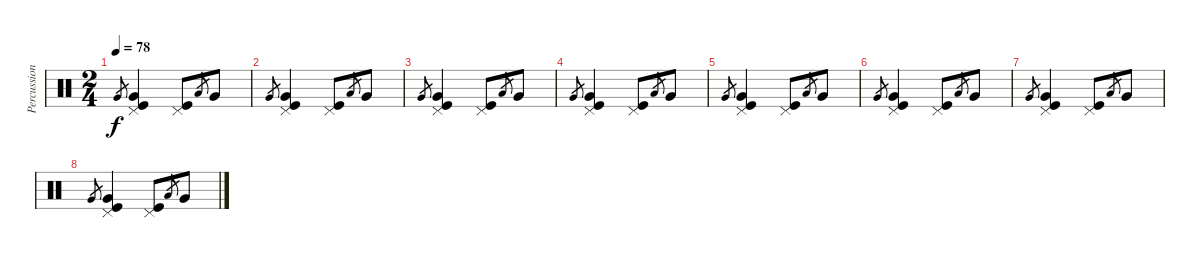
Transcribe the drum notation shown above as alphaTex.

\track ("Percussions" "Percussion") {instrument percussion}
\staff {score}
\articulation defaults
\ts (2 4)
\tempo 78
\clef neutral
\ks c "Very Low Tom (hit)".8{gr dy f}
("Pedal Hi-Hat (hit)" "Kick (hit)" "Very Low Tom (hit)").4 ("Pedal Hi-Hat (hit)" "Kick (hit)").8 "Low Floor Tom (hit)".8{gr} "Very Low Tom (hit)".8 |
"Very Low Tom (hit)".8{gr} ("Pedal Hi-Hat (hit)" "Kick (hit)" "Very Low Tom (hit)").4 ("Pedal Hi-Hat (hit)" "Kick (hit)").8 "Low Floor Tom (hit)".8{gr} "Very Low Tom (hit)".8 |
"Very Low Tom (hit)".8{gr} ("Pedal Hi-Hat (hit)" "Kick (hit)" "Very Low Tom (hit)").4 ("Pedal Hi-Hat (hit)" "Kick (hit)").8 "Low Floor Tom (hit)".8{gr} "Very Low Tom (hit)".8 |
"Very Low Tom (hit)".8{gr} ("Pedal Hi-Hat (hit)" "Kick (hit)" "Very Low Tom (hit)").4 ("Pedal Hi-Hat (hit)" "Kick (hit)").8 "Low Floor Tom (hit)".8{gr} "Very Low Tom (hit)".8 |
"Very Low Tom (hit)".8{gr} ("Pedal Hi-Hat (hit)" "Kick (hit)" "Very Low Tom (hit)").4 ("Pedal Hi-Hat (hit)" "Kick (hit)").8 "Low Floor Tom (hit)".8{gr} "Very Low Tom (hit)".8 |
"Very Low Tom (hit)".8{gr} ("Pedal Hi-Hat (hit)" "Kick (hit)" "Very Low Tom (hit)").4 ("Pedal Hi-Hat (hit)" "Kick (hit)").8 "Low Floor Tom (hit)".8{gr} "Very Low Tom (hit)".8 |
"Very Low Tom (hit)".8{gr} ("Pedal Hi-Hat (hit)" "Kick (hit)" "Very Low Tom (hit)").4 ("Pedal Hi-Hat (hit)" "Kick (hit)").8 "Low Floor Tom (hit)".8{gr} "Very Low Tom (hit)".8 |
"Very Low Tom (hit)".8{gr} ("Pedal Hi-Hat (hit)" "Kick (hit)" "Very Low Tom (hit)").4 ("Pedal Hi-Hat (hit)" "Kick (hit)").8 "Low Floor Tom (hit)".8{gr} "Very Low Tom (hit)".8
